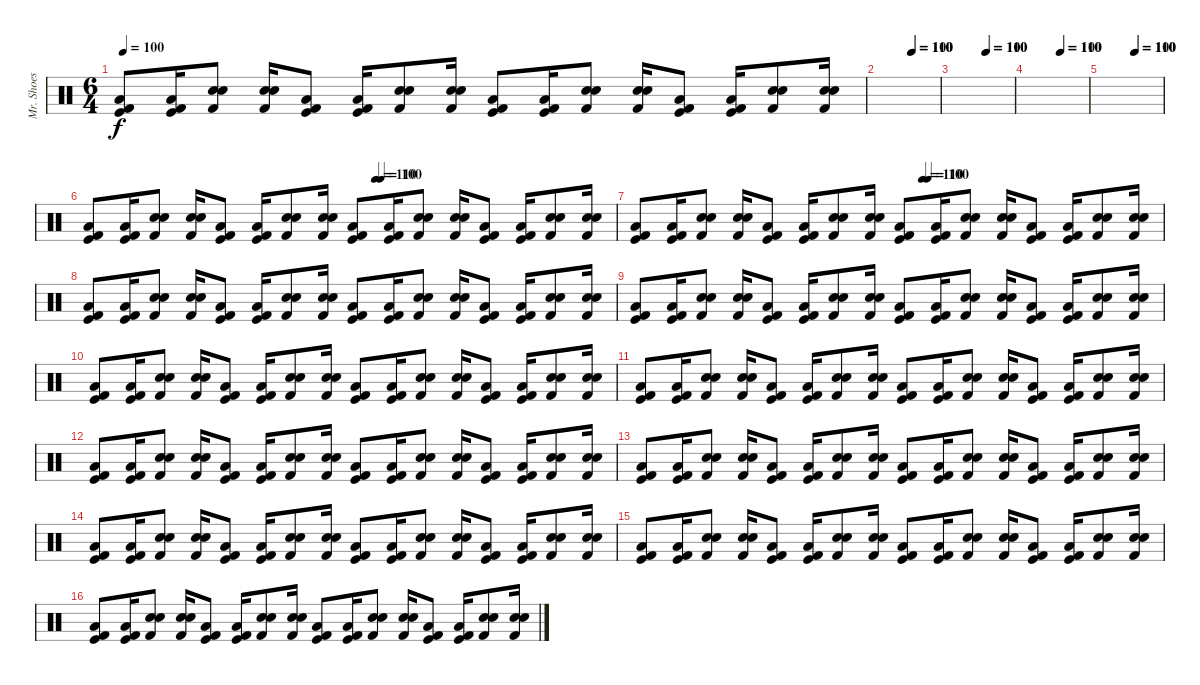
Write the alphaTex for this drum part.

\track ("Mr. Shoes" "Mr. Shoes") {instrument percussion}
\staff {score}
\articulation defaults
\ts (6 4)
\tempo 100
\clef neutral
\ks c
("Kick (hit)" "Low Tom (hit)" "Kick (hit) 2").8{dy f} ("Kick (hit)" "Low Tom (hit)" "Kick (hit) 2").16 ("Snare (hit) 2" "Kick (hit) 2" "Snare (hit) 2").8 ("Snare (hit) 2" "Kick (hit) 2" "Snare (hit) 2").16 ("Kick (hit)" "Low Tom (hit)" "Kick (hit) 2").8 ("Kick (hit)" "Low Tom (hit)" "Kick (hit) 2").16 ("Snare (hit) 2" "Kick (hit) 2" "Snare (hit) 2").8 ("Snare (hit) 2" "Kick (hit) 2" "Snare (hit) 2").16 ("Kick (hit)" "Low Tom (hit)" "Kick (hit) 2").8 ("Kick (hit)" "Low Tom (hit)" "Kick (hit) 2").16 ("Snare (hit) 2" "Kick (hit) 2" "Snare (hit) 2").8 ("Snare (hit) 2" "Kick (hit) 2" "Snare (hit) 2").16 ("Kick (hit)" "Low Tom (hit)" "Kick (hit) 2").8 ("Kick (hit)" "Low Tom (hit)" "Kick (hit) 2").16 ("Snare (hit) 2" "Kick (hit) 2" "Snare (hit) 2").8 ("Snare (hit) 2" "Kick (hit) 2" "Snare (hit) 2").16 |
\tempo (110 0.5416666666666666)
\tempo (100 0.5520833333333334)
|
\tempo (110 0.5416666666666666)
\tempo (100 0.5520833333333334)
|
\tempo (110 0.5416666666666666)
\tempo (100 0.5520833333333334)
|
\tempo (110 0.5416666666666666)
\tempo (100 0.5520833333333334)
|
\tempo (110 0.5416666666666666)
\tempo (100 0.5520833333333334)
("Kick (hit)" "Low Tom (hit)" "Kick (hit) 2").8 ("Kick (hit)" "Low Tom (hit)" "Kick (hit) 2").16 ("Snare (hit) 2" "Kick (hit) 2" "Snare (hit) 2").8 ("Snare (hit) 2" "Kick (hit) 2" "Snare (hit) 2").16 ("Kick (hit)" "Low Tom (hit)" "Kick (hit) 2").8 ("Kick (hit)" "Low Tom (hit)" "Kick (hit) 2").16 ("Snare (hit) 2" "Kick (hit) 2" "Snare (hit) 2").8 ("Snare (hit) 2" "Kick (hit) 2" "Snare (hit) 2").16 ("Kick (hit)" "Low Tom (hit)" "Kick (hit) 2").8 ("Kick (hit)" "Low Tom (hit)" "Kick (hit) 2").16 ("Snare (hit) 2" "Kick (hit) 2" "Snare (hit) 2").8 ("Snare (hit) 2" "Kick (hit) 2" "Snare (hit) 2").16 ("Kick (hit)" "Low Tom (hit)" "Kick (hit) 2").8 ("Kick (hit)" "Low Tom (hit)" "Kick (hit) 2").16 ("Snare (hit) 2" "Kick (hit) 2" "Snare (hit) 2").8 ("Snare (hit) 2" "Kick (hit) 2" "Snare (hit) 2").16 |
\tempo (110 0.5416666666666666)
\tempo (100 0.5520833333333334)
("Kick (hit)" "Low Tom (hit)" "Kick (hit) 2").8 ("Kick (hit)" "Low Tom (hit)" "Kick (hit) 2").16 ("Snare (hit) 2" "Kick (hit) 2" "Snare (hit) 2").8 ("Snare (hit) 2" "Kick (hit) 2" "Snare (hit) 2").16 ("Kick (hit)" "Low Tom (hit)" "Kick (hit) 2").8 ("Kick (hit)" "Low Tom (hit)" "Kick (hit) 2").16 ("Snare (hit) 2" "Kick (hit) 2" "Snare (hit) 2").8 ("Snare (hit) 2" "Kick (hit) 2" "Snare (hit) 2").16 ("Kick (hit)" "Low Tom (hit)" "Kick (hit) 2").8 ("Kick (hit)" "Low Tom (hit)" "Kick (hit) 2").16 ("Snare (hit) 2" "Kick (hit) 2" "Snare (hit) 2").8 ("Snare (hit) 2" "Kick (hit) 2" "Snare (hit) 2").16 ("Kick (hit)" "Low Tom (hit)" "Kick (hit) 2").8 ("Kick (hit)" "Low Tom (hit)" "Kick (hit) 2").16 ("Snare (hit) 2" "Kick (hit) 2" "Snare (hit) 2").8 ("Snare (hit) 2" "Kick (hit) 2" "Snare (hit) 2").16 |
("Kick (hit)" "Low Tom (hit)" "Kick (hit) 2").8 ("Kick (hit)" "Low Tom (hit)" "Kick (hit) 2").16 ("Snare (hit) 2" "Kick (hit) 2" "Snare (hit) 2").8 ("Snare (hit) 2" "Kick (hit) 2" "Snare (hit) 2").16 ("Kick (hit)" "Low Tom (hit)" "Kick (hit) 2").8 ("Kick (hit)" "Low Tom (hit)" "Kick (hit) 2").16 ("Snare (hit) 2" "Kick (hit) 2" "Snare (hit) 2").8 ("Snare (hit) 2" "Kick (hit) 2" "Snare (hit) 2").16 ("Kick (hit)" "Low Tom (hit)" "Kick (hit) 2").8 ("Kick (hit)" "Low Tom (hit)" "Kick (hit) 2").16 ("Snare (hit) 2" "Kick (hit) 2" "Snare (hit) 2").8 ("Snare (hit) 2" "Kick (hit) 2" "Snare (hit) 2").16 ("Kick (hit)" "Low Tom (hit)" "Kick (hit) 2").8 ("Kick (hit)" "Low Tom (hit)" "Kick (hit) 2").16 ("Snare (hit) 2" "Kick (hit) 2" "Snare (hit) 2").8 ("Snare (hit) 2" "Kick (hit) 2" "Snare (hit) 2").16 |
("Kick (hit)" "Low Tom (hit)" "Kick (hit) 2").8 ("Kick (hit)" "Low Tom (hit)" "Kick (hit) 2").16 ("Snare (hit) 2" "Kick (hit) 2" "Snare (hit) 2").8 ("Snare (hit) 2" "Kick (hit) 2" "Snare (hit) 2").16 ("Kick (hit)" "Low Tom (hit)" "Kick (hit) 2").8 ("Kick (hit)" "Low Tom (hit)" "Kick (hit) 2").16 ("Snare (hit) 2" "Kick (hit) 2" "Snare (hit) 2").8 ("Snare (hit) 2" "Kick (hit) 2" "Snare (hit) 2").16 ("Kick (hit)" "Low Tom (hit)" "Kick (hit) 2").8 ("Kick (hit)" "Low Tom (hit)" "Kick (hit) 2").16 ("Snare (hit) 2" "Kick (hit) 2" "Snare (hit) 2").8 ("Snare (hit) 2" "Kick (hit) 2" "Snare (hit) 2").16 ("Kick (hit)" "Low Tom (hit)" "Kick (hit) 2").8 ("Kick (hit)" "Low Tom (hit)" "Kick (hit) 2").16 ("Snare (hit) 2" "Kick (hit) 2" "Snare (hit) 2").8 ("Snare (hit) 2" "Kick (hit) 2" "Snare (hit) 2").16 |
("Kick (hit)" "Low Tom (hit)" "Kick (hit) 2").8 ("Kick (hit)" "Low Tom (hit)" "Kick (hit) 2").16 ("Snare (hit) 2" "Kick (hit) 2" "Snare (hit) 2").8 ("Snare (hit) 2" "Kick (hit) 2" "Snare (hit) 2").16 ("Kick (hit)" "Low Tom (hit)" "Kick (hit) 2").8 ("Kick (hit)" "Low Tom (hit)" "Kick (hit) 2").16 ("Snare (hit) 2" "Kick (hit) 2" "Snare (hit) 2").8 ("Snare (hit) 2" "Kick (hit) 2" "Snare (hit) 2").16 ("Kick (hit)" "Low Tom (hit)" "Kick (hit) 2").8 ("Kick (hit)" "Low Tom (hit)" "Kick (hit) 2").16 ("Snare (hit) 2" "Kick (hit) 2" "Snare (hit) 2").8 ("Snare (hit) 2" "Kick (hit) 2" "Snare (hit) 2").16 ("Kick (hit)" "Low Tom (hit)" "Kick (hit) 2").8 ("Kick (hit)" "Low Tom (hit)" "Kick (hit) 2").16 ("Snare (hit) 2" "Kick (hit) 2" "Snare (hit) 2").8 ("Snare (hit) 2" "Kick (hit) 2" "Snare (hit) 2").16 |
("Kick (hit)" "Low Tom (hit)" "Kick (hit) 2").8 ("Kick (hit)" "Low Tom (hit)" "Kick (hit) 2").16 ("Snare (hit) 2" "Kick (hit) 2" "Snare (hit) 2").8 ("Snare (hit) 2" "Kick (hit) 2" "Snare (hit) 2").16 ("Kick (hit)" "Low Tom (hit)" "Kick (hit) 2").8 ("Kick (hit)" "Low Tom (hit)" "Kick (hit) 2").16 ("Snare (hit) 2" "Kick (hit) 2" "Snare (hit) 2").8 ("Snare (hit) 2" "Kick (hit) 2" "Snare (hit) 2").16 ("Kick (hit)" "Low Tom (hit)" "Kick (hit) 2").8 ("Kick (hit)" "Low Tom (hit)" "Kick (hit) 2").16 ("Snare (hit) 2" "Kick (hit) 2" "Snare (hit) 2").8 ("Snare (hit) 2" "Kick (hit) 2" "Snare (hit) 2").16 ("Kick (hit)" "Low Tom (hit)" "Kick (hit) 2").8 ("Kick (hit)" "Low Tom (hit)" "Kick (hit) 2").16 ("Snare (hit) 2" "Kick (hit) 2" "Snare (hit) 2").8 ("Snare (hit) 2" "Kick (hit) 2" "Snare (hit) 2").16 |
("Kick (hit)" "Low Tom (hit)" "Kick (hit) 2").8 ("Kick (hit)" "Low Tom (hit)" "Kick (hit) 2").16 ("Snare (hit) 2" "Kick (hit) 2" "Snare (hit) 2").8 ("Snare (hit) 2" "Kick (hit) 2" "Snare (hit) 2").16 ("Kick (hit)" "Low Tom (hit)" "Kick (hit) 2").8 ("Kick (hit)" "Low Tom (hit)" "Kick (hit) 2").16 ("Snare (hit) 2" "Kick (hit) 2" "Snare (hit) 2").8 ("Snare (hit) 2" "Kick (hit) 2" "Snare (hit) 2").16 ("Kick (hit)" "Low Tom (hit)" "Kick (hit) 2").8 ("Kick (hit)" "Low Tom (hit)" "Kick (hit) 2").16 ("Snare (hit) 2" "Kick (hit) 2" "Snare (hit) 2").8 ("Snare (hit) 2" "Kick (hit) 2" "Snare (hit) 2").16 ("Kick (hit)" "Low Tom (hit)" "Kick (hit) 2").8 ("Kick (hit)" "Low Tom (hit)" "Kick (hit) 2").16 ("Snare (hit) 2" "Kick (hit) 2" "Snare (hit) 2").8 ("Snare (hit) 2" "Kick (hit) 2" "Snare (hit) 2").16 |
("Kick (hit)" "Low Tom (hit)" "Kick (hit) 2").8 ("Kick (hit)" "Low Tom (hit)" "Kick (hit) 2").16 ("Snare (hit) 2" "Kick (hit) 2" "Snare (hit) 2").8 ("Snare (hit) 2" "Kick (hit) 2" "Snare (hit) 2").16 ("Kick (hit)" "Low Tom (hit)" "Kick (hit) 2").8 ("Kick (hit)" "Low Tom (hit)" "Kick (hit) 2").16 ("Snare (hit) 2" "Kick (hit) 2" "Snare (hit) 2").8 ("Snare (hit) 2" "Kick (hit) 2" "Snare (hit) 2").16 ("Kick (hit)" "Low Tom (hit)" "Kick (hit) 2").8 ("Kick (hit)" "Low Tom (hit)" "Kick (hit) 2").16 ("Snare (hit) 2" "Kick (hit) 2" "Snare (hit) 2").8 ("Snare (hit) 2" "Kick (hit) 2" "Snare (hit) 2").16 ("Kick (hit)" "Low Tom (hit)" "Kick (hit) 2").8 ("Kick (hit)" "Low Tom (hit)" "Kick (hit) 2").16 ("Snare (hit) 2" "Kick (hit) 2" "Snare (hit) 2").8 ("Snare (hit) 2" "Kick (hit) 2" "Snare (hit) 2").16 |
("Kick (hit)" "Low Tom (hit)" "Kick (hit) 2").8 ("Kick (hit)" "Low Tom (hit)" "Kick (hit) 2").16 ("Snare (hit) 2" "Kick (hit) 2" "Snare (hit) 2").8 ("Snare (hit) 2" "Kick (hit) 2" "Snare (hit) 2").16 ("Kick (hit)" "Low Tom (hit)" "Kick (hit) 2").8 ("Kick (hit)" "Low Tom (hit)" "Kick (hit) 2").16 ("Snare (hit) 2" "Kick (hit) 2" "Snare (hit) 2").8 ("Snare (hit) 2" "Kick (hit) 2" "Snare (hit) 2").16 ("Kick (hit)" "Low Tom (hit)" "Kick (hit) 2").8 ("Kick (hit)" "Low Tom (hit)" "Kick (hit) 2").16 ("Snare (hit) 2" "Kick (hit) 2" "Snare (hit) 2").8 ("Snare (hit) 2" "Kick (hit) 2" "Snare (hit) 2").16 ("Kick (hit)" "Low Tom (hit)" "Kick (hit) 2").8 ("Kick (hit)" "Low Tom (hit)" "Kick (hit) 2").16 ("Snare (hit) 2" "Kick (hit) 2" "Snare (hit) 2").8 ("Snare (hit) 2" "Kick (hit) 2" "Snare (hit) 2").16 |
("Kick (hit)" "Low Tom (hit)" "Kick (hit) 2").8 ("Kick (hit)" "Low Tom (hit)" "Kick (hit) 2").16 ("Snare (hit) 2" "Kick (hit) 2" "Snare (hit) 2").8 ("Snare (hit) 2" "Kick (hit) 2" "Snare (hit) 2").16 ("Kick (hit)" "Low Tom (hit)" "Kick (hit) 2").8 ("Kick (hit)" "Low Tom (hit)" "Kick (hit) 2").16 ("Snare (hit) 2" "Kick (hit) 2" "Snare (hit) 2").8 ("Snare (hit) 2" "Kick (hit) 2" "Snare (hit) 2").16 ("Kick (hit)" "Low Tom (hit)" "Kick (hit) 2").8 ("Kick (hit)" "Low Tom (hit)" "Kick (hit) 2").16 ("Snare (hit) 2" "Kick (hit) 2" "Snare (hit) 2").8 ("Snare (hit) 2" "Kick (hit) 2" "Snare (hit) 2").16 ("Kick (hit)" "Low Tom (hit)" "Kick (hit) 2").8 ("Kick (hit)" "Low Tom (hit)" "Kick (hit) 2").16 ("Snare (hit) 2" "Kick (hit) 2" "Snare (hit) 2").8 ("Snare (hit) 2" "Kick (hit) 2" "Snare (hit) 2").16 |
("Kick (hit)" "Low Tom (hit)" "Kick (hit) 2").8 ("Kick (hit)" "Low Tom (hit)" "Kick (hit) 2").16 ("Snare (hit) 2" "Kick (hit) 2" "Snare (hit) 2").8 ("Snare (hit) 2" "Kick (hit) 2" "Snare (hit) 2").16 ("Kick (hit)" "Low Tom (hit)" "Kick (hit) 2").8 ("Kick (hit)" "Low Tom (hit)" "Kick (hit) 2").16 ("Snare (hit) 2" "Kick (hit) 2" "Snare (hit) 2").8 ("Snare (hit) 2" "Kick (hit) 2" "Snare (hit) 2").16 ("Kick (hit)" "Low Tom (hit)" "Kick (hit) 2").8 ("Kick (hit)" "Low Tom (hit)" "Kick (hit) 2").16 ("Snare (hit) 2" "Kick (hit) 2" "Snare (hit) 2").8 ("Snare (hit) 2" "Kick (hit) 2" "Snare (hit) 2").16 ("Kick (hit)" "Low Tom (hit)" "Kick (hit) 2").8 ("Kick (hit)" "Low Tom (hit)" "Kick (hit) 2").16 ("Snare (hit) 2" "Kick (hit) 2" "Snare (hit) 2").8 ("Snare (hit) 2" "Kick (hit) 2" "Snare (hit) 2").16
